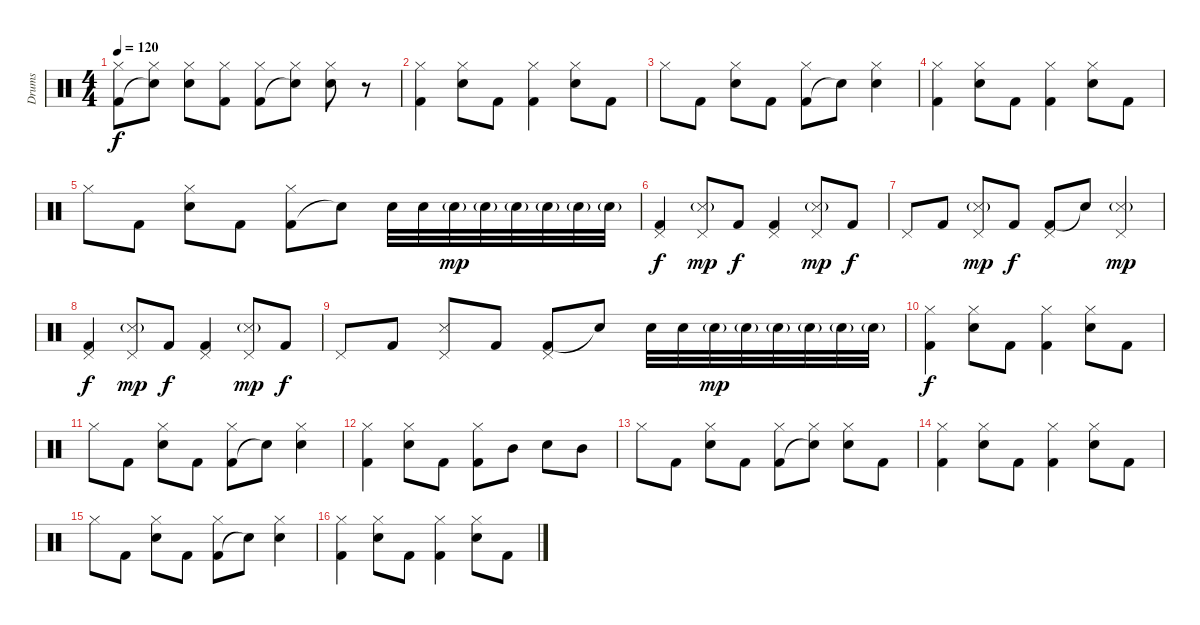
\track ("Drums" "Drums") {instrument percussion}
\staff {score}
\articulation defaults
\ts (4 4)
\tempo 120
\clef neutral
\ks c
("Kick (hit) 2" "Hi-Hat (closed)").8{dy f} ("Snare (hit)"{t} "Hi-Hat (closed)").8 ("Snare (hit) 2" "Hi-Hat (closed)").8 ("Kick (hit) 2" "Hi-Hat (closed)").8 ("Kick (hit) 2" "Hi-Hat (closed)").8 ("Snare (hit)"{t} "Hi-Hat (closed)").8 ("Snare (hit) 2" "Hi-Hat (closed)").8 r.8 |
("Kick (hit) 2" "Hi-Hat (closed)").4 ("Snare (hit) 2" "Hi-Hat (closed)").8 "Kick (hit) 2".8 ("Kick (hit) 2" "Hi-Hat (closed)").4 ("Snare (hit) 2" "Hi-Hat (closed)").8 "Kick (hit) 2".8 |
"Hi-Hat (closed)".8 "Kick (hit) 2".8 ("Snare (hit) 2" "Hi-Hat (closed)").8 "Kick (hit) 2".8 ("Kick (hit) 2" "Hi-Hat (closed)").8 "Snare (hit)"{t}.8 ("Snare (hit) 2" "Hi-Hat (closed)").4 |
("Kick (hit) 2" "Hi-Hat (closed)").4 ("Snare (hit) 2" "Hi-Hat (closed)").8 "Kick (hit) 2".8 ("Kick (hit) 2" "Hi-Hat (closed)").4 ("Snare (hit) 2" "Hi-Hat (closed)").8 "Kick (hit) 2".8 |
"Hi-Hat (closed)".8 "Kick (hit) 2".8 ("Snare (hit) 2" "Hi-Hat (closed)").8 "Kick (hit) 2".8 ("Kick (hit) 2" "Hi-Hat (closed)").8 "Snare (hit)"{t}.8 "Snare (hit) 2".32 "Snare (hit) 2".32 "Snare (hit) 2"{g}.32{dy mp} "Snare (hit) 2"{g}.32 "Snare (hit) 2"{g}.32 "Snare (hit) 2"{g}.32 "Snare (hit) 2"{g}.32 "Snare (hit) 2"{g}.32 |
("Kick (hit) 2" "Pedal Hi-Hat (hit)").4{dy f} ("Snare (side stick) 3"{g} "Pedal Hi-Hat (hit)").8{dy mp} "Kick (hit) 2".8{dy f} ("Kick (hit) 2" "Pedal Hi-Hat (hit)").4 ("Snare (side stick) 3"{g} "Pedal Hi-Hat (hit)").8{dy mp} "Kick (hit) 2".8{dy f} |
"Pedal Hi-Hat (hit)".8 "Kick (hit) 2".8 ("Snare (side stick) 3"{g} "Pedal Hi-Hat (hit)").8{dy mp} "Kick (hit) 2".8{dy f} ("Kick (hit) 2" "Pedal Hi-Hat (hit)").8 "Snare (hit)"{t}.8 ("Snare (side stick) 3"{g} "Pedal Hi-Hat (hit)").4{dy mp} |
("Kick (hit) 2" "Pedal Hi-Hat (hit)").4{dy f} ("Snare (side stick) 3"{g} "Pedal Hi-Hat (hit)").8{dy mp} "Kick (hit) 2".8{dy f} ("Kick (hit) 2" "Pedal Hi-Hat (hit)").4 ("Snare (side stick) 3"{g} "Pedal Hi-Hat (hit)").8{dy mp} "Kick (hit) 2".8{dy f} |
"Pedal Hi-Hat (hit)".8 "Kick (hit) 2".8 ("Snare (side stick) 3" "Pedal Hi-Hat (hit)").8 "Kick (hit) 2".8 ("Kick (hit) 2" "Pedal Hi-Hat (hit)").8 "Snare (hit)"{t}.8 "Snare (hit) 2".32 "Snare (hit) 2".32 "Snare (hit) 2"{g}.32{dy mp} "Snare (hit) 2"{g}.32 "Snare (hit) 2"{g}.32 "Snare (hit) 2"{g}.32 "Snare (hit) 2"{g}.32 "Snare (hit) 2"{g}.32 |
("Kick (hit) 2" "Hi-Hat (closed)").4{dy f} ("Snare (hit) 2" "Hi-Hat (closed)").8 "Kick (hit) 2".8 ("Kick (hit) 2" "Hi-Hat (closed)").4 ("Snare (hit) 2" "Hi-Hat (closed)").8 "Kick (hit) 2".8 |
"Hi-Hat (closed)".8 "Kick (hit) 2".8 ("Snare (hit) 2" "Hi-Hat (closed)").8 "Kick (hit) 2".8 ("Kick (hit) 2" "Hi-Hat (closed)").8 "Snare (hit)"{t}.8 ("Snare (hit) 2" "Hi-Hat (closed)").4 |
("Kick (hit) 2" "Hi-Hat (closed)").4 ("Snare (hit) 2" "Hi-Hat (closed)").8 "Kick (hit) 2".8 ("Kick (hit) 2" "Hi-Hat (closed)").8 "Mid Tom (hit)".8 "Snare (hit) 2".8 "Mid Tom (hit)".8 |
"Hi-Hat (closed)".8 "Kick (hit) 2".8 ("Snare (hit) 2" "Hi-Hat (closed)").8 "Kick (hit) 2".8 ("Kick (hit) 2" "Hi-Hat (closed)").8 ("Snare (hit)"{t} "Hi-Hat (closed)").8 ("Snare (hit) 2" "Hi-Hat (closed)").8 "Kick (hit) 2".8 |
("Kick (hit) 2" "Hi-Hat (closed)").4 ("Snare (hit) 2" "Hi-Hat (closed)").8 "Kick (hit) 2".8 ("Kick (hit) 2" "Hi-Hat (closed)").4 ("Snare (hit) 2" "Hi-Hat (closed)").8 "Kick (hit) 2".8 |
"Hi-Hat (closed)".8 "Kick (hit) 2".8 ("Snare (hit) 2" "Hi-Hat (closed)").8 "Kick (hit) 2".8 ("Kick (hit) 2" "Hi-Hat (closed)").8 "Snare (hit)"{t}.8 ("Snare (hit) 2" "Hi-Hat (closed)").4 |
("Kick (hit) 2" "Hi-Hat (closed)").4 ("Snare (hit) 2" "Hi-Hat (closed)").8 "Kick (hit) 2".8 ("Kick (hit) 2" "Hi-Hat (closed)").4 ("Snare (hit) 2" "Hi-Hat (closed)").8 "Kick (hit) 2".8
